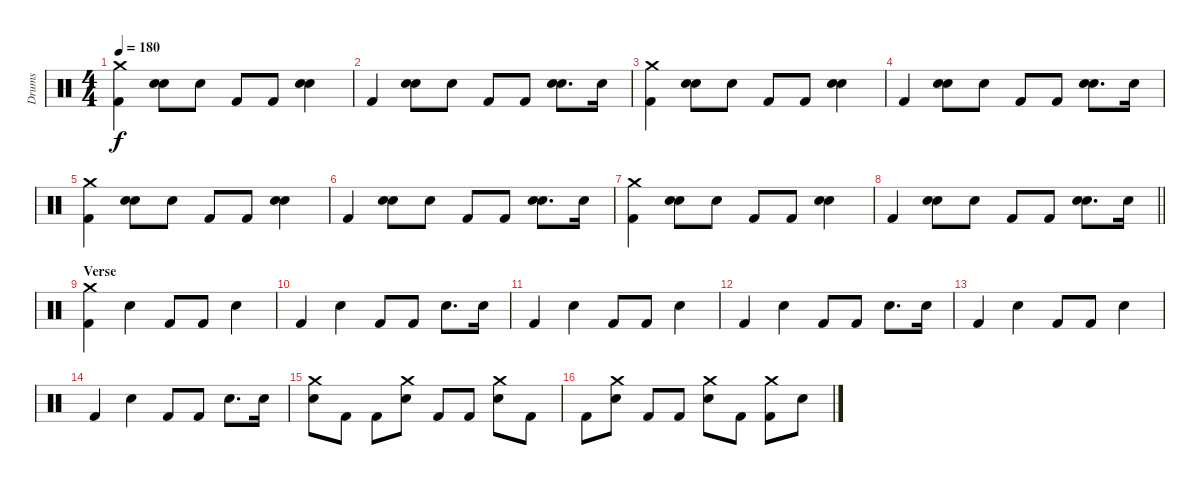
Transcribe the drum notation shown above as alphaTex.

\track ("Drums" "Drums") {instrument percussion}
\staff {score}
\articulation defaults
\ts (4 4)
\tempo 180
\clef neutral
\ks c
("Kick (hit) 2" "Crash medium (hit)").4{dy f} ("Snare (hit) 2" "Hand Clap (hit)").8 "Hand Clap (hit)".8 "Kick (hit) 2".8 "Kick (hit) 2".8 ("Snare (hit) 2" "Hand Clap (hit)").4 |
"Kick (hit) 2".4 ("Snare (hit) 2" "Hand Clap (hit)").8 "Hand Clap (hit)".8 "Kick (hit) 2".8 "Kick (hit) 2".8 ("Snare (hit) 2" "Hand Clap (hit)").8{d} "Snare (hit) 2".16 |
("Kick (hit) 2" "Crash medium (hit)").4 ("Snare (hit) 2" "Hand Clap (hit)").8 "Hand Clap (hit)".8 "Kick (hit) 2".8 "Kick (hit) 2".8 ("Snare (hit) 2" "Hand Clap (hit)").4 |
"Kick (hit) 2".4 ("Snare (hit) 2" "Hand Clap (hit)").8 "Hand Clap (hit)".8 "Kick (hit) 2".8 "Kick (hit) 2".8 ("Snare (hit) 2" "Hand Clap (hit)").8{d} "Snare (hit) 2".16 |
("Kick (hit) 2" "Crash medium (hit)").4 ("Snare (hit) 2" "Hand Clap (hit)").8 "Hand Clap (hit)".8 "Kick (hit) 2".8 "Kick (hit) 2".8 ("Snare (hit) 2" "Hand Clap (hit)").4 |
"Kick (hit) 2".4 ("Snare (hit) 2" "Hand Clap (hit)").8 "Hand Clap (hit)".8 "Kick (hit) 2".8 "Kick (hit) 2".8 ("Snare (hit) 2" "Hand Clap (hit)").8{d} "Snare (hit) 2".16 |
("Kick (hit) 2" "Crash medium (hit)").4 ("Snare (hit) 2" "Hand Clap (hit)").8 "Hand Clap (hit)".8 "Kick (hit) 2".8 "Kick (hit) 2".8 ("Snare (hit) 2" "Hand Clap (hit)").4 |
\barLineRight lightlight "Kick (hit) 2".4
("Snare (hit) 2" "Hand Clap (hit)").8 "Hand Clap (hit)".8 "Kick (hit) 2".8 "Kick (hit) 2".8 ("Snare (hit) 2" "Hand Clap (hit)").8{d} "Snare (hit) 2".16 |
\section ("" "Verse")
("Kick (hit) 2" "Crash medium (hit)").4 "Snare (hit) 2".4 "Kick (hit) 2".8 "Kick (hit) 2".8 "Snare (hit) 2".4 |
"Kick (hit) 2".4 "Snare (hit) 2".4 "Kick (hit) 2".8 "Kick (hit) 2".8 "Snare (hit) 2".8{d} "Snare (hit) 2".16 |
"Kick (hit) 2".4 "Snare (hit) 2".4 "Kick (hit) 2".8 "Kick (hit) 2".8 "Snare (hit) 2".4 |
"Kick (hit) 2".4 "Snare (hit) 2".4 "Kick (hit) 2".8 "Kick (hit) 2".8 "Snare (hit) 2".8{d} "Snare (hit) 2".16 |
"Kick (hit) 2".4 "Snare (hit) 2".4 "Kick (hit) 2".8 "Kick (hit) 2".8 "Snare (hit) 2".4 |
"Kick (hit) 2".4 "Snare (hit) 2".4 "Kick (hit) 2".8 "Kick (hit) 2".8 "Snare (hit) 2".8{d} "Snare (hit) 2".16 |
("Snare (hit) 2" "Crash medium (hit)").8 "Kick (hit) 2".8 "Kick (hit) 2".8 ("Snare (hit) 2" "Crash medium (hit)").8 "Kick (hit) 2".8 "Kick (hit) 2".8 ("Snare (hit) 2" "Crash medium (hit)").8 "Kick (hit) 2".8 |
"Kick (hit) 2".8 ("Snare (hit) 2" "Crash medium (hit)").8 "Kick (hit) 2".8 "Kick (hit) 2".8 ("Snare (hit) 2" "Crash medium (hit)").8 "Kick (hit) 2".8 ("Kick (hit) 2" "Crash medium (hit)").8 "Snare (hit) 2".8
